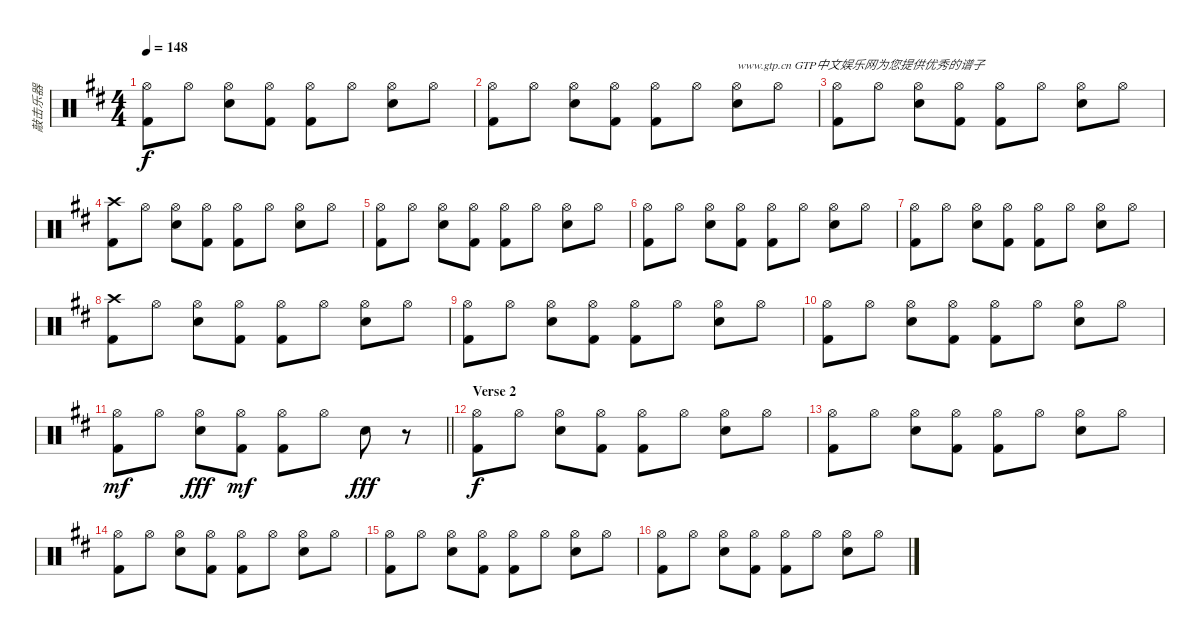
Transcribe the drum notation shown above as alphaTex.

\track ("敲击乐器" "敲击乐器") {instrument percussion}
\staff {score}
\articulation defaults
\ts (4 4)
\tempo 148
\clef neutral
\ks d
("Hi-Hat (open)" "Kick (hit) 2").8{dy f} "Hi-Hat (open)".8 ("Hi-Hat (open)" "Electric Snare (hit)").8 ("Hi-Hat (open)" "Kick (hit) 2").8 ("Hi-Hat (open)" "Kick (hit) 2").8 "Hi-Hat (open)".8 ("Hi-Hat (open)" "Electric Snare (hit)").8 "Hi-Hat (open)".8 |
("Hi-Hat (open)" "Kick (hit) 2").8 "Hi-Hat (open)".8 ("Hi-Hat (open)" "Electric Snare (hit)").8 ("Hi-Hat (open)" "Kick (hit) 2").8 ("Hi-Hat (open)" "Kick (hit) 2").8 "Hi-Hat (open)".8 ("Hi-Hat (open)" "Electric Snare (hit)").8{txt "www.gtp.cn GTP中文娱乐网为您提供优秀的谱子"} "Hi-Hat (open)".8 |
("Hi-Hat (open)" "Kick (hit) 2").8 "Hi-Hat (open)".8 ("Hi-Hat (open)" "Electric Snare (hit)").8 ("Hi-Hat (open)" "Kick (hit) 2").8 ("Hi-Hat (open)" "Kick (hit) 2").8 "Hi-Hat (open)".8 ("Hi-Hat (open)" "Electric Snare (hit)").8 "Hi-Hat (open)".8 |
("Crash high (hit)" "Kick (hit) 2").8 "Hi-Hat (open)".8 ("Hi-Hat (open)" "Electric Snare (hit)").8 ("Hi-Hat (open)" "Kick (hit) 2").8 ("Hi-Hat (open)" "Kick (hit) 2").8 "Hi-Hat (open)".8 ("Hi-Hat (open)" "Electric Snare (hit)").8 "Hi-Hat (open)".8 |
("Hi-Hat (open)" "Kick (hit) 2").8 "Hi-Hat (open)".8 ("Hi-Hat (open)" "Electric Snare (hit)").8 ("Hi-Hat (open)" "Kick (hit) 2").8 ("Hi-Hat (open)" "Kick (hit) 2").8 "Hi-Hat (open)".8 ("Hi-Hat (open)" "Electric Snare (hit)").8 "Hi-Hat (open)".8 |
("Hi-Hat (open)" "Kick (hit) 2").8 "Hi-Hat (open)".8 ("Hi-Hat (open)" "Electric Snare (hit)").8 ("Hi-Hat (open)" "Kick (hit) 2").8 ("Hi-Hat (open)" "Kick (hit) 2").8 "Hi-Hat (open)".8 ("Hi-Hat (open)" "Electric Snare (hit)").8 "Hi-Hat (open)".8 |
("Hi-Hat (open)" "Kick (hit) 2").8 "Hi-Hat (open)".8 ("Hi-Hat (open)" "Electric Snare (hit)").8 ("Hi-Hat (open)" "Kick (hit) 2").8 ("Hi-Hat (open)" "Kick (hit) 2").8 "Hi-Hat (open)".8 ("Hi-Hat (open)" "Electric Snare (hit)").8 "Hi-Hat (open)".8 |
("Crash high (hit)" "Kick (hit) 2").8 "Hi-Hat (open)".8 ("Hi-Hat (open)" "Electric Snare (hit)").8 ("Hi-Hat (open)" "Kick (hit) 2").8 ("Hi-Hat (open)" "Kick (hit) 2").8 "Hi-Hat (open)".8 ("Hi-Hat (open)" "Electric Snare (hit)").8 "Hi-Hat (open)".8 |
("Hi-Hat (open)" "Kick (hit) 2").8 "Hi-Hat (open)".8 ("Hi-Hat (open)" "Electric Snare (hit)").8 ("Hi-Hat (open)" "Kick (hit) 2").8 ("Hi-Hat (open)" "Kick (hit) 2").8 "Hi-Hat (open)".8 ("Hi-Hat (open)" "Electric Snare (hit)").8 "Hi-Hat (open)".8 |
("Hi-Hat (open)" "Kick (hit) 2").8 "Hi-Hat (open)".8 ("Hi-Hat (open)" "Electric Snare (hit)").8 ("Hi-Hat (open)" "Kick (hit) 2").8 ("Hi-Hat (open)" "Kick (hit) 2").8 "Hi-Hat (open)".8 ("Hi-Hat (open)" "Electric Snare (hit)").8 "Hi-Hat (open)".8 |
\barLineRight lightlight
("Kick (hit) 2" "Hi-Hat (open)").8{dy mf} "Hi-Hat (open)".8 ("Hi-Hat (open)" "Electric Snare (hit)").8{dy fff} ("Kick (hit) 2" "Hi-Hat (open)").8{dy mf} ("Kick (hit) 2" "Hi-Hat (open)").8 "Hi-Hat (open)".8 "Electric Snare (hit)".8{dy fff} r.8 |
\section ("" "Verse 2")
("Hi-Hat (open)" "Kick (hit) 2").8{dy f} "Hi-Hat (open)".8 ("Hi-Hat (open)" "Electric Snare (hit)").8 ("Hi-Hat (open)" "Kick (hit) 2").8 ("Hi-Hat (open)" "Kick (hit) 2").8 "Hi-Hat (open)".8 ("Hi-Hat (open)" "Electric Snare (hit)").8 "Hi-Hat (open)".8 |
("Hi-Hat (open)" "Kick (hit) 2").8 "Hi-Hat (open)".8 ("Hi-Hat (open)" "Electric Snare (hit)").8 ("Hi-Hat (open)" "Kick (hit) 2").8 ("Hi-Hat (open)" "Kick (hit) 2").8 "Hi-Hat (open)".8 ("Hi-Hat (open)" "Electric Snare (hit)").8 "Hi-Hat (open)".8 |
("Hi-Hat (open)" "Kick (hit) 2").8 "Hi-Hat (open)".8 ("Hi-Hat (open)" "Electric Snare (hit)").8 ("Hi-Hat (open)" "Kick (hit) 2").8 ("Hi-Hat (open)" "Kick (hit) 2").8 "Hi-Hat (open)".8 ("Hi-Hat (open)" "Electric Snare (hit)").8 "Hi-Hat (open)".8 |
("Hi-Hat (open)" "Kick (hit) 2").8 "Hi-Hat (open)".8 ("Hi-Hat (open)" "Electric Snare (hit)").8 ("Hi-Hat (open)" "Kick (hit) 2").8 ("Hi-Hat (open)" "Kick (hit) 2").8 "Hi-Hat (open)".8 ("Hi-Hat (open)" "Electric Snare (hit)").8 "Hi-Hat (open)".8 |
("Hi-Hat (open)" "Kick (hit) 2").8 "Hi-Hat (open)".8 ("Hi-Hat (open)" "Electric Snare (hit)").8 ("Hi-Hat (open)" "Kick (hit) 2").8 ("Hi-Hat (open)" "Kick (hit) 2").8 "Hi-Hat (open)".8 ("Hi-Hat (open)" "Electric Snare (hit)").8 "Hi-Hat (open)".8
